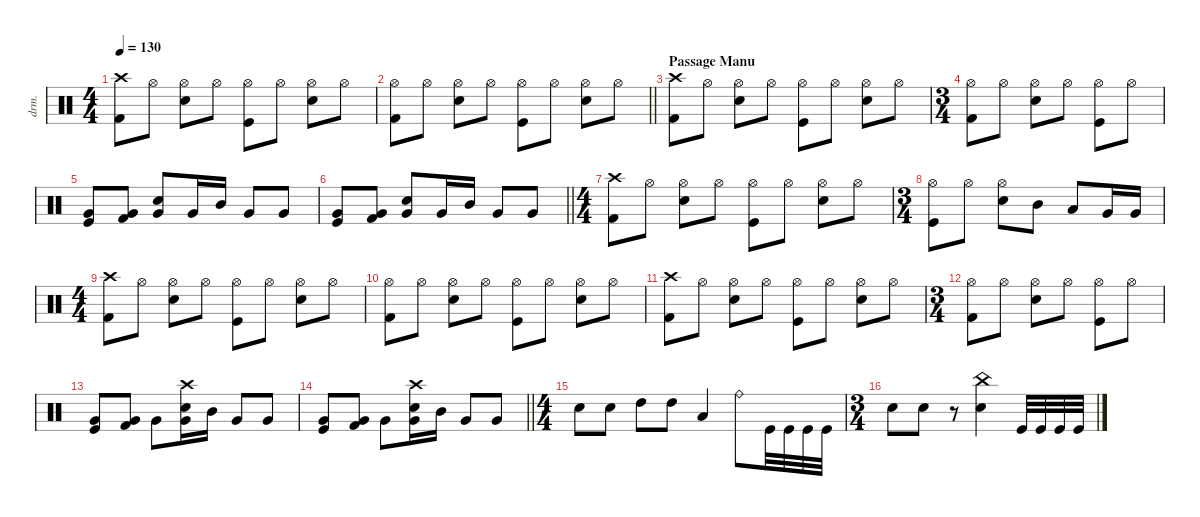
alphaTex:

\defaultSystemsLayout 4
\hideDynamics
\bracketExtendMode nobrackets
\track ("Manouche" "drm.") {instrument percussion}
\staff {score}
\articulation defaults
\ts (4 4)
\beaming (8 2 2 2 2)
\tempo 130
\clef neutral
\ks c
("Kick (hit) 2" "Crash high (hit)").8{dy f} "Hi-Hat (open)".8{dy mp} ("Hi-Hat (open)" "Snare (hit) 2").8{dy f} "Hi-Hat (open)".8{dy mp} ("Hi-Hat (open)" "Kick (hit)").8{dy f} "Hi-Hat (open)".8{dy mp} ("Hi-Hat (open)" "Snare (hit) 2").8{dy f} "Hi-Hat (open)".8{dy mp} |
\barLineRight lightlight
("Hi-Hat (open)" "Kick (hit) 2").8{dy f} "Hi-Hat (open)".8{dy mp} ("Hi-Hat (open)" "Snare (hit) 2").8{dy f} "Hi-Hat (open)".8{dy mp} ("Hi-Hat (open)" "Kick (hit)").8{dy f} "Hi-Hat (open)".8{dy mp} ("Hi-Hat (open)" "Snare (hit) 2").8{dy f} "Hi-Hat (open)".8{dy mp} |
\section ("" "Passage Manu")
("Kick (hit) 2" "Crash high (hit)").8{dy f} "Hi-Hat (open)".8{dy mp} ("Hi-Hat (open)" "Snare (hit) 2").8{dy f} "Hi-Hat (open)".8{dy mp} ("Hi-Hat (open)" "Kick (hit)").8{dy f} "Hi-Hat (open)".8{dy mp} ("Hi-Hat (open)" "Snare (hit) 2").8{dy f} "Hi-Hat (open)".8{dy mp} |
\ts (3 4)
\beaming (8 2 2 2 2)
("Hi-Hat (open)" "Kick (hit) 2").8{dy f} "Hi-Hat (open)".8{dy mp} ("Hi-Hat (open)" "Snare (hit) 2").8{dy f} "Hi-Hat (open)".8{dy mp} ("Hi-Hat (open)" "Kick (hit)").8{dy f} "Hi-Hat (open)".8{dy mp} |
\beaming (8 2 2 2)
("Kick (hit)" "Very Low Tom (hit)").8{dy f} ("Very Low Tom (hit)" "Kick (hit) 2").8 ("Very Low Tom (hit)" "Snare (hit) 2").8 "Very Low Tom (hit)".16 "Mid Tom (hit)".16 "Very Low Tom (hit)".8 "Very Low Tom (hit)".8 |
\barLineRight lightlight
("Kick (hit)" "Very Low Tom (hit)").8 ("Very Low Tom (hit)" "Kick (hit) 2").8 ("Very Low Tom (hit)" "Snare (hit) 2").8 "Very Low Tom (hit)".16 "Mid Tom (hit)".16 "Very Low Tom (hit)".8 "Very Low Tom (hit)".8 |
\ts (4 4)
\beaming (8 2 2 2 2)
("Crash high (hit)" "Kick (hit) 2").8{dy fff} "Hi-Hat (open)".8{dy mp} ("Hi-Hat (open)" "Snare (hit) 2").8{dy f} "Hi-Hat (open)".8{dy mp} ("Hi-Hat (open)" "Kick (hit)").8{dy f} "Hi-Hat (open)".8{dy mp} ("Hi-Hat (open)" "Snare (hit) 2").8{dy f} "Hi-Hat (open)".8{dy mp} |
\ts (3 4)
\beaming (8 2 2 2)
("Hi-Hat (open)" "Kick (hit)").8{dy f} "Hi-Hat (open)".8{dy mp} ("Hi-Hat (open)" "Snare (hit) 2").8{dy f} "Mid Tom (hit)".8 "Low Tom (hit)".8 "Very Low Tom (hit)".16 "Very Low Tom (hit)".16 |
\ts (4 4)
\beaming (8 2 2 2 2)
("Kick (hit) 2" "Crash high (hit)").8 "Hi-Hat (open)".8{dy mp} ("Hi-Hat (open)" "Snare (hit) 2").8{dy f} "Hi-Hat (open)".8{dy mp} ("Hi-Hat (open)" "Kick (hit)").8{dy f} "Hi-Hat (open)".8{dy mp} ("Hi-Hat (open)" "Snare (hit) 2").8{dy f} "Hi-Hat (open)".8{dy mp} |
("Hi-Hat (open)" "Kick (hit) 2").8{dy f} "Hi-Hat (open)".8{dy mp} ("Hi-Hat (open)" "Snare (hit) 2").8{dy f} "Hi-Hat (open)".8{dy mp} ("Hi-Hat (open)" "Kick (hit)").8{dy f} "Hi-Hat (open)".8{dy mp} ("Hi-Hat (open)" "Snare (hit) 2").8{dy f} "Hi-Hat (open)".8{dy mp} |
("Kick (hit) 2" "Crash high (hit)").8{dy f} "Hi-Hat (open)".8{dy mp} ("Hi-Hat (open)" "Snare (hit) 2").8{dy f} "Hi-Hat (open)".8{dy mp} ("Hi-Hat (open)" "Kick (hit)").8{dy f} "Hi-Hat (open)".8{dy mp} ("Hi-Hat (open)" "Snare (hit) 2").8{dy f} "Hi-Hat (open)".8{dy mp} |
\ts (3 4)
\beaming (8 2 2 2)
("Hi-Hat (open)" "Kick (hit) 2").8{dy f} "Hi-Hat (open)".8{dy mp} ("Hi-Hat (open)" "Snare (hit) 2").8{dy f} "Hi-Hat (open)".8{dy mp} ("Hi-Hat (open)" "Kick (hit)").8{dy f} "Hi-Hat (open)".8{dy mp} |
("Kick (hit)" "Very Low Tom (hit)").8{dy f} ("Very Low Tom (hit)" "Kick (hit) 2").8 "Very Low Tom (hit)".8 ("Very Low Tom (hit)" "Crash high (hit)" "Snare (hit) 2").16 "Mid Tom (hit)".16 "Very Low Tom (hit)".8 "Very Low Tom (hit)".8 |
\barLineRight lightlight
("Kick (hit)" "Very Low Tom (hit)").8 ("Very Low Tom (hit)" "Kick (hit) 2").8 "Very Low Tom (hit)".8 ("Very Low Tom (hit)" "Crash high (hit)" "Snare (hit) 2").16 "Mid Tom (hit)".16 "Very Low Tom (hit)".8 "Very Low Tom (hit)".8 |
\ts (4 4)
\beaming (8 2 2 2 2)
"Snare (hit) 2".8 "Snare (hit) 2".8 "High Tom (hit)".8 "High Tom (hit)".8 "Low Tom (hit)".4 "Ride (bell)".8 "Kick (hit)".32 "Kick (hit)".32 "Kick (hit)".32 "Kick (hit)".32 |
\ts (3 4)
\beaming (8 2 2 2)
"Snare (hit) 2".8 "Snare (hit) 2".8 r.8 ("Snare (hit) 2" "China (hit)").4 "Kick (hit)".32 "Kick (hit)".32 "Kick (hit)".32 "Kick (hit)".32
